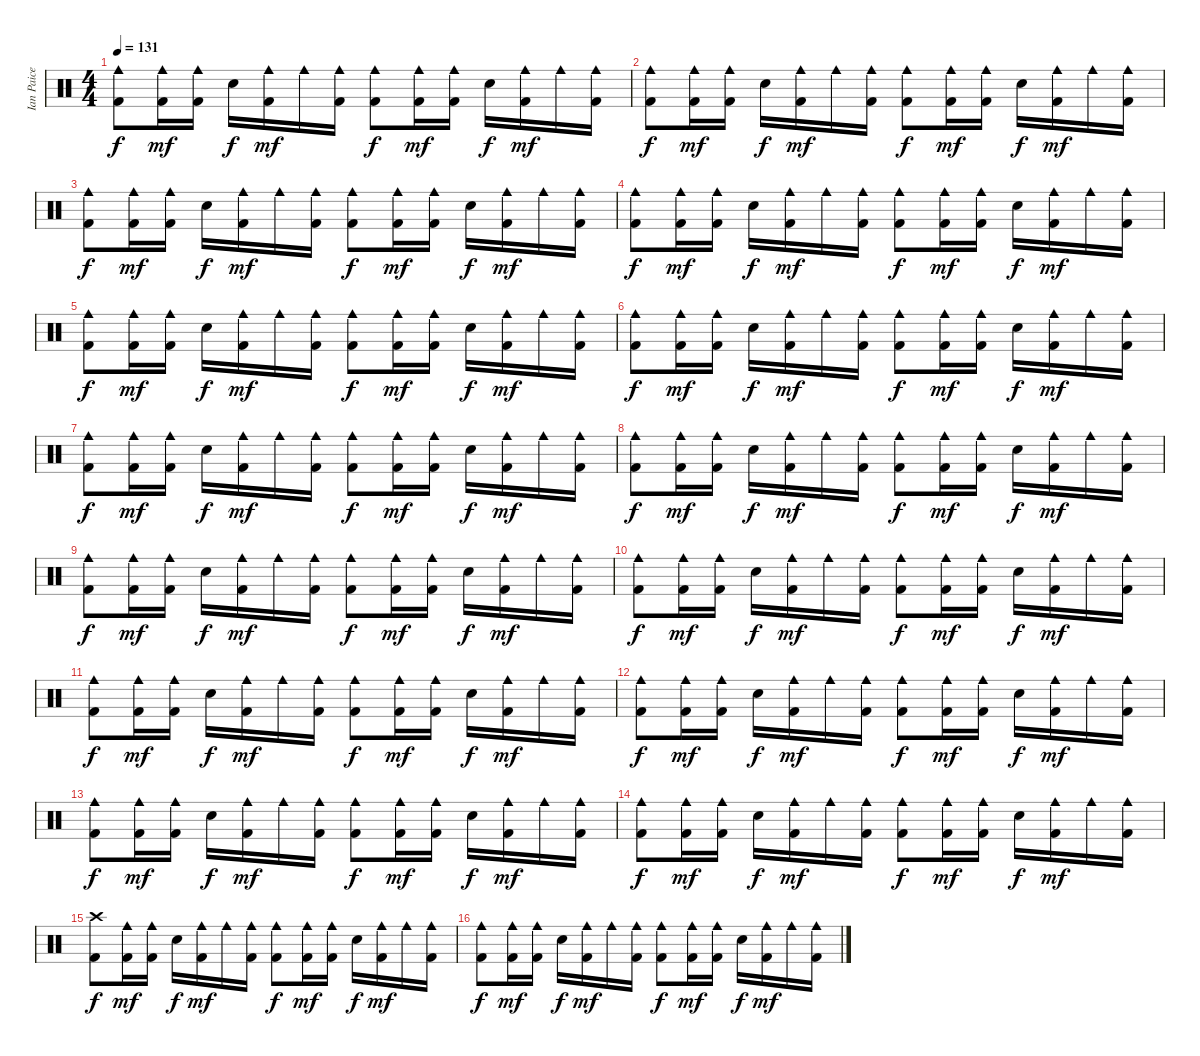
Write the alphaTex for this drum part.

\track ("Ian Paice" "Ian Paice") {instrument percussion}
\staff {score}
\articulation defaults
\ts (4 4)
\tempo 131
\clef neutral
\ks c
("Cowbell medium (hit)" "Kick (hit) 2").8{dy f} ("Cowbell medium (hit)" "Kick (hit) 2").16{dy mf} ("Cowbell medium (hit)" "Kick (hit) 2").16 "Snare (hit) 2".16{dy f} ("Cowbell medium (hit)" "Kick (hit) 2").16{dy mf} "Cowbell medium (hit)".16 ("Cowbell medium (hit)" "Kick (hit) 2").16 ("Cowbell medium (hit)" "Kick (hit) 2").8{dy f} ("Cowbell medium (hit)" "Kick (hit) 2").16{dy mf} ("Cowbell medium (hit)" "Kick (hit) 2").16 "Snare (hit) 2".16{dy f} ("Cowbell medium (hit)" "Kick (hit) 2").16{dy mf} "Cowbell medium (hit)".16 ("Cowbell medium (hit)" "Kick (hit) 2").16 |
("Cowbell medium (hit)" "Kick (hit) 2").8{dy f} ("Cowbell medium (hit)" "Kick (hit) 2").16{dy mf} ("Cowbell medium (hit)" "Kick (hit) 2").16 "Snare (hit) 2".16{dy f} ("Cowbell medium (hit)" "Kick (hit) 2").16{dy mf} "Cowbell medium (hit)".16 ("Cowbell medium (hit)" "Kick (hit) 2").16 ("Cowbell medium (hit)" "Kick (hit) 2").8{dy f} ("Cowbell medium (hit)" "Kick (hit) 2").16{dy mf} ("Cowbell medium (hit)" "Kick (hit) 2").16 "Snare (hit) 2".16{dy f} ("Cowbell medium (hit)" "Kick (hit) 2").16{dy mf} "Cowbell medium (hit)".16 ("Cowbell medium (hit)" "Kick (hit) 2").16 |
("Cowbell medium (hit)" "Kick (hit) 2").8{dy f} ("Cowbell medium (hit)" "Kick (hit) 2").16{dy mf} ("Cowbell medium (hit)" "Kick (hit) 2").16 "Snare (hit) 2".16{dy f} ("Cowbell medium (hit)" "Kick (hit) 2").16{dy mf} "Cowbell medium (hit)".16 ("Cowbell medium (hit)" "Kick (hit) 2").16 ("Cowbell medium (hit)" "Kick (hit) 2").8{dy f} ("Cowbell medium (hit)" "Kick (hit) 2").16{dy mf} ("Cowbell medium (hit)" "Kick (hit) 2").16 "Snare (hit) 2".16{dy f} ("Cowbell medium (hit)" "Kick (hit) 2").16{dy mf} "Cowbell medium (hit)".16 ("Cowbell medium (hit)" "Kick (hit) 2").16 |
("Cowbell medium (hit)" "Kick (hit) 2").8{dy f} ("Cowbell medium (hit)" "Kick (hit) 2").16{dy mf} ("Cowbell medium (hit)" "Kick (hit) 2").16 "Snare (hit) 2".16{dy f} ("Cowbell medium (hit)" "Kick (hit) 2").16{dy mf} "Cowbell medium (hit)".16 ("Cowbell medium (hit)" "Kick (hit) 2").16 ("Cowbell medium (hit)" "Kick (hit) 2").8{dy f} ("Cowbell medium (hit)" "Kick (hit) 2").16{dy mf} ("Cowbell medium (hit)" "Kick (hit) 2").16 "Snare (hit) 2".16{dy f} ("Cowbell medium (hit)" "Kick (hit) 2").16{dy mf} "Cowbell medium (hit)".16 ("Cowbell medium (hit)" "Kick (hit) 2").16 |
("Cowbell medium (hit)" "Kick (hit) 2").8{dy f} ("Cowbell medium (hit)" "Kick (hit) 2").16{dy mf} ("Cowbell medium (hit)" "Kick (hit) 2").16 "Snare (hit) 2".16{dy f} ("Cowbell medium (hit)" "Kick (hit) 2").16{dy mf} "Cowbell medium (hit)".16 ("Cowbell medium (hit)" "Kick (hit) 2").16 ("Cowbell medium (hit)" "Kick (hit) 2").8{dy f} ("Cowbell medium (hit)" "Kick (hit) 2").16{dy mf} ("Cowbell medium (hit)" "Kick (hit) 2").16 "Snare (hit) 2".16{dy f} ("Cowbell medium (hit)" "Kick (hit) 2").16{dy mf} "Cowbell medium (hit)".16 ("Cowbell medium (hit)" "Kick (hit) 2").16 |
("Cowbell medium (hit)" "Kick (hit) 2").8{dy f} ("Cowbell medium (hit)" "Kick (hit) 2").16{dy mf} ("Cowbell medium (hit)" "Kick (hit) 2").16 "Snare (hit) 2".16{dy f} ("Cowbell medium (hit)" "Kick (hit) 2").16{dy mf} "Cowbell medium (hit)".16 ("Cowbell medium (hit)" "Kick (hit) 2").16 ("Cowbell medium (hit)" "Kick (hit) 2").8{dy f} ("Cowbell medium (hit)" "Kick (hit) 2").16{dy mf} ("Cowbell medium (hit)" "Kick (hit) 2").16 "Snare (hit) 2".16{dy f} ("Cowbell medium (hit)" "Kick (hit) 2").16{dy mf} "Cowbell medium (hit)".16 ("Cowbell medium (hit)" "Kick (hit) 2").16 |
("Cowbell medium (hit)" "Kick (hit) 2").8{dy f} ("Cowbell medium (hit)" "Kick (hit) 2").16{dy mf} ("Cowbell medium (hit)" "Kick (hit) 2").16 "Snare (hit) 2".16{dy f} ("Cowbell medium (hit)" "Kick (hit) 2").16{dy mf} "Cowbell medium (hit)".16 ("Cowbell medium (hit)" "Kick (hit) 2").16 ("Cowbell medium (hit)" "Kick (hit) 2").8{dy f} ("Cowbell medium (hit)" "Kick (hit) 2").16{dy mf} ("Cowbell medium (hit)" "Kick (hit) 2").16 "Snare (hit) 2".16{dy f} ("Cowbell medium (hit)" "Kick (hit) 2").16{dy mf} "Cowbell medium (hit)".16 ("Cowbell medium (hit)" "Kick (hit) 2").16 |
("Cowbell medium (hit)" "Kick (hit) 2").8{dy f} ("Cowbell medium (hit)" "Kick (hit) 2").16{dy mf} ("Cowbell medium (hit)" "Kick (hit) 2").16 "Snare (hit) 2".16{dy f} ("Cowbell medium (hit)" "Kick (hit) 2").16{dy mf} "Cowbell medium (hit)".16 ("Cowbell medium (hit)" "Kick (hit) 2").16 ("Cowbell medium (hit)" "Kick (hit) 2").8{dy f} ("Cowbell medium (hit)" "Kick (hit) 2").16{dy mf} ("Cowbell medium (hit)" "Kick (hit) 2").16 "Snare (hit) 2".16{dy f} ("Cowbell medium (hit)" "Kick (hit) 2").16{dy mf} "Cowbell medium (hit)".16 ("Cowbell medium (hit)" "Kick (hit) 2").16 |
("Cowbell medium (hit)" "Kick (hit) 2").8{dy f} ("Cowbell medium (hit)" "Kick (hit) 2").16{dy mf} ("Cowbell medium (hit)" "Kick (hit) 2").16 "Snare (hit) 2".16{dy f} ("Cowbell medium (hit)" "Kick (hit) 2").16{dy mf} "Cowbell medium (hit)".16 ("Cowbell medium (hit)" "Kick (hit) 2").16 ("Cowbell medium (hit)" "Kick (hit) 2").8{dy f} ("Cowbell medium (hit)" "Kick (hit) 2").16{dy mf} ("Cowbell medium (hit)" "Kick (hit) 2").16 "Snare (hit) 2".16{dy f} ("Cowbell medium (hit)" "Kick (hit) 2").16{dy mf} "Cowbell medium (hit)".16 ("Cowbell medium (hit)" "Kick (hit) 2").16 |
("Cowbell medium (hit)" "Kick (hit) 2").8{dy f} ("Cowbell medium (hit)" "Kick (hit) 2").16{dy mf} ("Cowbell medium (hit)" "Kick (hit) 2").16 "Snare (hit) 2".16{dy f} ("Cowbell medium (hit)" "Kick (hit) 2").16{dy mf} "Cowbell medium (hit)".16 ("Cowbell medium (hit)" "Kick (hit) 2").16 ("Cowbell medium (hit)" "Kick (hit) 2").8{dy f} ("Cowbell medium (hit)" "Kick (hit) 2").16{dy mf} ("Cowbell medium (hit)" "Kick (hit) 2").16 "Snare (hit) 2".16{dy f} ("Cowbell medium (hit)" "Kick (hit) 2").16{dy mf} "Cowbell medium (hit)".16 ("Cowbell medium (hit)" "Kick (hit) 2").16 |
("Cowbell medium (hit)" "Kick (hit) 2").8{dy f} ("Cowbell medium (hit)" "Kick (hit) 2").16{dy mf} ("Cowbell medium (hit)" "Kick (hit) 2").16 "Snare (hit) 2".16{dy f} ("Cowbell medium (hit)" "Kick (hit) 2").16{dy mf} "Cowbell medium (hit)".16 ("Cowbell medium (hit)" "Kick (hit) 2").16 ("Cowbell medium (hit)" "Kick (hit) 2").8{dy f} ("Cowbell medium (hit)" "Kick (hit) 2").16{dy mf} ("Cowbell medium (hit)" "Kick (hit) 2").16 "Snare (hit) 2".16{dy f} ("Cowbell medium (hit)" "Kick (hit) 2").16{dy mf} "Cowbell medium (hit)".16 ("Cowbell medium (hit)" "Kick (hit) 2").16 |
("Cowbell medium (hit)" "Kick (hit) 2").8{dy f} ("Cowbell medium (hit)" "Kick (hit) 2").16{dy mf} ("Cowbell medium (hit)" "Kick (hit) 2").16 "Snare (hit) 2".16{dy f} ("Cowbell medium (hit)" "Kick (hit) 2").16{dy mf} "Cowbell medium (hit)".16 ("Cowbell medium (hit)" "Kick (hit) 2").16 ("Cowbell medium (hit)" "Kick (hit) 2").8{dy f} ("Cowbell medium (hit)" "Kick (hit) 2").16{dy mf} ("Cowbell medium (hit)" "Kick (hit) 2").16 "Snare (hit) 2".16{dy f} ("Cowbell medium (hit)" "Kick (hit) 2").16{dy mf} "Cowbell medium (hit)".16 ("Cowbell medium (hit)" "Kick (hit) 2").16 |
("Cowbell medium (hit)" "Kick (hit) 2").8{dy f} ("Cowbell medium (hit)" "Kick (hit) 2").16{dy mf} ("Cowbell medium (hit)" "Kick (hit) 2").16 "Snare (hit) 2".16{dy f} ("Cowbell medium (hit)" "Kick (hit) 2").16{dy mf} "Cowbell medium (hit)".16 ("Cowbell medium (hit)" "Kick (hit) 2").16 ("Cowbell medium (hit)" "Kick (hit) 2").8{dy f} ("Cowbell medium (hit)" "Kick (hit) 2").16{dy mf} ("Cowbell medium (hit)" "Kick (hit) 2").16 "Snare (hit) 2".16{dy f} ("Cowbell medium (hit)" "Kick (hit) 2").16{dy mf} "Cowbell medium (hit)".16 ("Cowbell medium (hit)" "Kick (hit) 2").16 |
("Cowbell medium (hit)" "Kick (hit) 2").8{dy f} ("Cowbell medium (hit)" "Kick (hit) 2").16{dy mf} ("Cowbell medium (hit)" "Kick (hit) 2").16 "Snare (hit) 2".16{dy f} ("Cowbell medium (hit)" "Kick (hit) 2").16{dy mf} "Cowbell medium (hit)".16 ("Cowbell medium (hit)" "Kick (hit) 2").16 ("Cowbell medium (hit)" "Kick (hit) 2").8{dy f} ("Cowbell medium (hit)" "Kick (hit) 2").16{dy mf} ("Cowbell medium (hit)" "Kick (hit) 2").16 "Snare (hit) 2".16{dy f} ("Cowbell medium (hit)" "Kick (hit) 2").16{dy mf} "Cowbell medium (hit)".16 ("Cowbell medium (hit)" "Kick (hit) 2").16 |
("Crash high (hit)" "Kick (hit) 2").8{dy f} ("Cowbell medium (hit)" "Kick (hit) 2").16{dy mf} ("Cowbell medium (hit)" "Kick (hit) 2").16 "Snare (hit) 2".16{dy f} ("Cowbell medium (hit)" "Kick (hit) 2").16{dy mf} "Cowbell medium (hit)".16 ("Cowbell medium (hit)" "Kick (hit) 2").16 ("Cowbell medium (hit)" "Kick (hit) 2").8{dy f} ("Cowbell medium (hit)" "Kick (hit) 2").16{dy mf} ("Cowbell medium (hit)" "Kick (hit) 2").16 "Snare (hit) 2".16{dy f} ("Cowbell medium (hit)" "Kick (hit) 2").16{dy mf} "Cowbell medium (hit)".16 ("Cowbell medium (hit)" "Kick (hit) 2").16 |
("Cowbell medium (hit)" "Kick (hit) 2").8{dy f} ("Cowbell medium (hit)" "Kick (hit) 2").16{dy mf} ("Cowbell medium (hit)" "Kick (hit) 2").16 "Snare (hit) 2".16{dy f} ("Cowbell medium (hit)" "Kick (hit) 2").16{dy mf} "Cowbell medium (hit)".16 ("Cowbell medium (hit)" "Kick (hit) 2").16 ("Cowbell medium (hit)" "Kick (hit) 2").8{dy f} ("Cowbell medium (hit)" "Kick (hit) 2").16{dy mf} ("Cowbell medium (hit)" "Kick (hit) 2").16 "Snare (hit) 2".16{dy f} ("Cowbell medium (hit)" "Kick (hit) 2").16{dy mf} "Cowbell medium (hit)".16 ("Cowbell medium (hit)" "Kick (hit) 2").16
